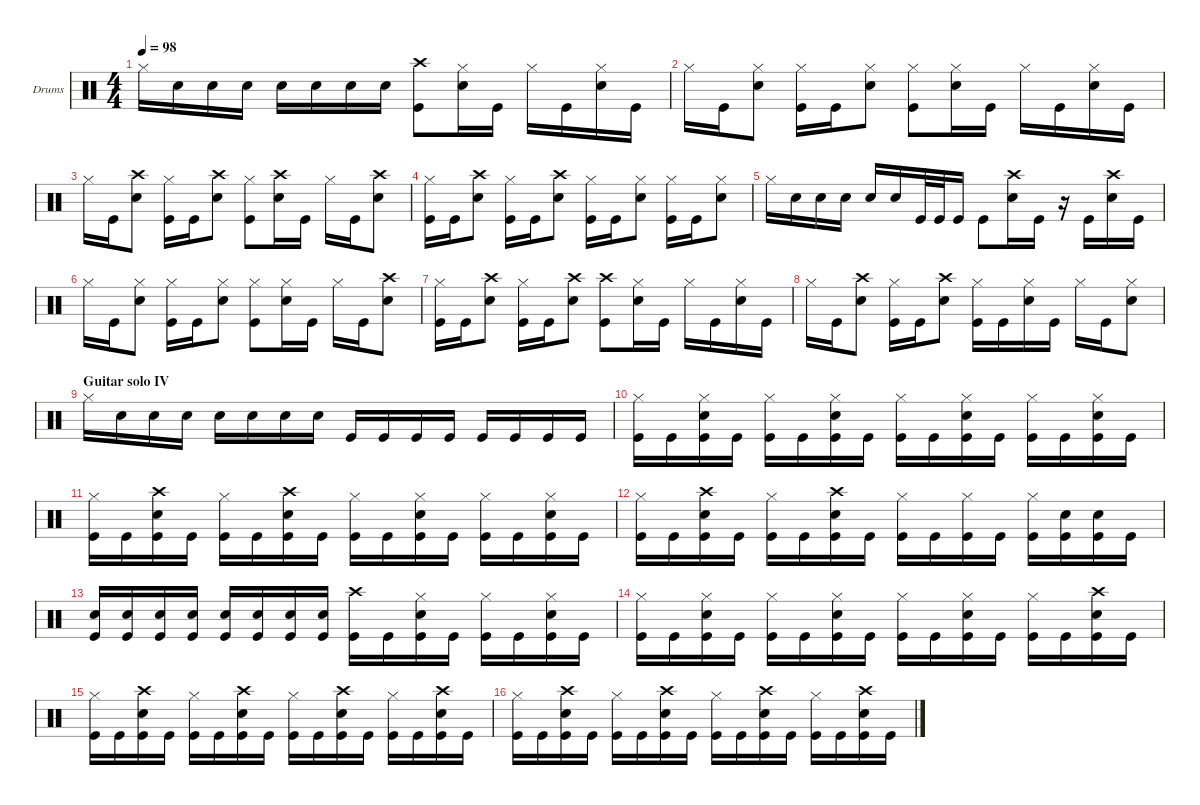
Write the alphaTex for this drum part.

\hideDynamics
\bracketExtendMode groupsimilarinstruments
\firstSystemTrackNameOrientation horizontal
\otherSystemsTrackNameOrientation horizontal
\track ("Drumkit" "Drums") {multiBarRest instrument percussion}
\staff {score}
\articulation defaults
\ts (4 4)
\tempo 98
\clef neutral
\ks c "Hi-Hat (closed)".16{dy f} "Snare (hit) 2".16 "Snare (hit) 2".16 "Snare (hit) 2".16 "Snare (hit) 2".16 "Snare (hit) 2".16 "Snare (hit) 2".16 "Snare (hit) 2".16
("Crash high (hit)" "Kick (hit)").8 ("Snare (hit) 2" "Hi-Hat (closed)").16 "Kick (hit)".16 "Hi-Hat (closed)".16 "Kick (hit)".16 ("Snare (hit) 2" "Hi-Hat (closed)").16 "Kick (hit)".16 |
"Hi-Hat (closed)".16 "Kick (hit)".16 ("Snare (hit) 2" "Hi-Hat (closed)").8 ("Kick (hit)" "Hi-Hat (closed)").16 "Kick (hit)".16 ("Snare (hit) 2" "Hi-Hat (closed)").8 ("Kick (hit)" "Hi-Hat (closed)").8 ("Snare (hit) 2" "Hi-Hat (closed)").16 "Kick (hit)".16 "Hi-Hat (closed)".16 "Kick (hit)".16 ("Snare (hit) 2" "Hi-Hat (closed)").16 "Kick (hit)".16 |
"Hi-Hat (closed)".16 "Kick (hit)".16 ("Snare (hit) 2" "Crash high (hit)").8 ("Hi-Hat (closed)" "Kick (hit)").16 "Kick (hit)".16 ("Crash high (hit)" "Snare (hit) 2").8 ("Hi-Hat (closed)" "Kick (hit)").8 ("Crash high (hit)" "Snare (hit) 2").16 "Kick (hit)".16 "Hi-Hat (closed)".16 "Kick (hit)".16 ("Snare (hit) 2" "Crash high (hit)").8 |
("Kick (hit)" "Hi-Hat (closed)").16 "Kick (hit)".16 ("Crash high (hit)" "Snare (hit) 2").8 ("Kick (hit)" "Hi-Hat (closed)").16 "Kick (hit)".16 ("Crash high (hit)" "Snare (hit) 2").8 ("Kick (hit)" "Hi-Hat (closed)").16 "Kick (hit)".16 ("Snare (hit) 2" "Hi-Hat (closed)").8 ("Kick (hit)" "Hi-Hat (closed)").16 "Kick (hit)".16 ("Snare (hit) 2" "Hi-Hat (closed)").8 |
"Hi-Hat (closed)".16 "Snare (hit) 2".16 "Snare (hit) 2".16 "Snare (hit) 2".16 "Snare (hit) 2".16 "Snare (hit) 2".16 "Kick (hit)".32 "Kick (hit)".32 "Kick (hit)".16 "Kick (hit)".8 ("Snare (hit) 2" "Crash high (hit)").16 "Kick (hit)".16 r.16 "Kick (hit)".16 ("Crash high (hit)" "Snare (hit) 2").16 "Kick (hit)".16 |
"Hi-Hat (closed)".16 "Kick (hit)".16 ("Snare (hit) 2" "Hi-Hat (closed)").8 ("Kick (hit)" "Hi-Hat (closed)").16 "Kick (hit)".16 ("Snare (hit) 2" "Hi-Hat (closed)").8 ("Kick (hit)" "Hi-Hat (closed)").8 ("Snare (hit) 2" "Hi-Hat (closed)").16 "Kick (hit)".16 "Hi-Hat (closed)".16 "Kick (hit)".16 ("Crash high (hit)" "Snare (hit) 2").8 |
("Hi-Hat (closed)" "Kick (hit)").16 "Kick (hit)".16 ("Crash high (hit)" "Snare (hit) 2").8 ("Hi-Hat (closed)" "Kick (hit)").16 "Kick (hit)".16 ("Crash high (hit)" "Snare (hit) 2").8 ("Crash high (hit)" "Kick (hit)").8 ("Snare (hit) 2" "Hi-Hat (closed)").16 "Kick (hit)".16 "Hi-Hat (closed)".16 "Kick (hit)".16 ("Snare (hit) 2" "Hi-Hat (closed)").16 "Kick (hit)".16 |
"Hi-Hat (closed)".16 "Kick (hit)".16 ("Crash high (hit)" "Snare (hit) 2").8 ("Hi-Hat (closed)" "Kick (hit)").16 "Kick (hit)".16 ("Crash high (hit)" "Snare (hit) 2").8 ("Hi-Hat (closed)" "Kick (hit)").16 "Kick (hit)".16 ("Snare (hit) 2" "Hi-Hat (closed)").16 "Kick (hit)".16 "Hi-Hat (closed)".16 "Kick (hit)".16 ("Snare (hit) 2" "Hi-Hat (closed)").8 |
\section ("" "Guitar solo IV")
"Hi-Hat (closed)".16 "Snare (hit) 2".16 "Snare (hit) 2".16 "Snare (hit) 2".16 "Snare (hit) 2".16 "Snare (hit) 2".16 "Snare (hit) 2".16 "Snare (hit) 2".16 "Kick (hit)".16 "Kick (hit)".16 "Kick (hit)".16 "Kick (hit)".16 "Kick (hit)".16 "Kick (hit)".16 "Kick (hit)".16 "Kick (hit)".16 |
("Hi-Hat (closed)" "Kick (hit)").16 "Kick (hit)".16 ("Snare (hit) 2" "Hi-Hat (closed)" "Kick (hit)").16 "Kick (hit)".16 ("Hi-Hat (closed)" "Kick (hit)").16 "Kick (hit)".16 ("Snare (hit) 2" "Hi-Hat (closed)" "Kick (hit)").16 "Kick (hit)".16 ("Hi-Hat (closed)" "Kick (hit)").16 "Kick (hit)".16 ("Snare (hit) 2" "Hi-Hat (closed)" "Kick (hit)").16 "Kick (hit)".16 ("Hi-Hat (closed)" "Kick (hit)").16 "Kick (hit)".16 ("Snare (hit) 2" "Hi-Hat (closed)" "Kick (hit)").16 "Kick (hit)".16 |
("Hi-Hat (closed)" "Kick (hit)").16 "Kick (hit)".16 ("Crash high (hit)" "Snare (hit) 2" "Kick (hit)").16 "Kick (hit)".16 ("Hi-Hat (closed)" "Kick (hit)").16 "Kick (hit)".16 ("Crash high (hit)" "Snare (hit) 2" "Kick (hit)").16 "Kick (hit)".16 ("Hi-Hat (closed)" "Kick (hit)").16 "Kick (hit)".16 ("Snare (hit) 2" "Hi-Hat (closed)" "Kick (hit)").16 "Kick (hit)".16 ("Hi-Hat (closed)" "Kick (hit)").16 "Kick (hit)".16 ("Snare (hit) 2" "Hi-Hat (closed)" "Kick (hit)").16 "Kick (hit)".16 |
("Hi-Hat (closed)" "Kick (hit)").16 "Kick (hit)".16 ("Crash high (hit)" "Snare (hit) 2" "Kick (hit)").16 "Kick (hit)".16 ("Hi-Hat (closed)" "Kick (hit)").16 "Kick (hit)".16 ("Crash high (hit)" "Snare (hit) 2" "Kick (hit)").16 "Kick (hit)".16 ("Hi-Hat (closed)" "Kick (hit)").16 "Kick (hit)".16 ("Hi-Hat (closed)" "Kick (hit)").16 "Kick (hit)".16 ("Hi-Hat (closed)" "Kick (hit)").16 ("Snare (hit) 2" "Kick (hit)").16 ("Snare (hit) 2" "Kick (hit)").16 "Kick (hit)".16 |
("Snare (hit) 2" "Kick (hit)").16 ("Snare (hit) 2" "Kick (hit)").16 ("Snare (hit) 2" "Kick (hit)").16 ("Snare (hit) 2" "Kick (hit)").16 ("Snare (hit) 2" "Kick (hit)").16 ("Snare (hit) 2" "Kick (hit)").16 ("Snare (hit) 2" "Kick (hit)").16 ("Snare (hit) 2" "Kick (hit)").16 ("Crash high (hit)" "Kick (hit)").16 "Kick (hit)".16 ("Snare (hit) 2" "Hi-Hat (closed)" "Kick (hit)").16 "Kick (hit)".16 ("Hi-Hat (closed)" "Kick (hit)").16 "Kick (hit)".16 ("Snare (hit) 2" "Hi-Hat (closed)" "Kick (hit)").16 "Kick (hit)".16 |
("Hi-Hat (closed)" "Kick (hit)").16 "Kick (hit)".16 ("Snare (hit) 2" "Hi-Hat (closed)" "Kick (hit)").16 "Kick (hit)".16 ("Hi-Hat (closed)" "Kick (hit)").16 "Kick (hit)".16 ("Snare (hit) 2" "Hi-Hat (closed)" "Kick (hit)").16 "Kick (hit)".16 ("Hi-Hat (closed)" "Kick (hit)").16 "Kick (hit)".16 ("Snare (hit) 2" "Hi-Hat (closed)" "Kick (hit)").16 "Kick (hit)".16 ("Hi-Hat (closed)" "Kick (hit)").16 "Kick (hit)".16 ("Crash high (hit)" "Snare (hit) 2" "Kick (hit)").16 "Kick (hit)".16 |
("Hi-Hat (closed)" "Kick (hit)").16 "Kick (hit)".16 ("Crash high (hit)" "Snare (hit) 2" "Kick (hit)").16 "Kick (hit)".16 ("Hi-Hat (closed)" "Kick (hit)").16 "Kick (hit)".16 ("Crash high (hit)" "Snare (hit) 2" "Kick (hit)").16 "Kick (hit)".16 ("Hi-Hat (closed)" "Kick (hit)").16 "Kick (hit)".16 ("Crash high (hit)" "Snare (hit) 2" "Kick (hit)").16 "Kick (hit)".16 ("Hi-Hat (closed)" "Kick (hit)").16 "Kick (hit)".16 ("Crash high (hit)" "Snare (hit) 2" "Kick (hit)").16 "Kick (hit)".16 |
("Hi-Hat (closed)" "Kick (hit)").16 "Kick (hit)".16 ("Crash high (hit)" "Snare (hit) 2" "Kick (hit)").16 "Kick (hit)".16 ("Hi-Hat (closed)" "Kick (hit)").16 "Kick (hit)".16 ("Crash high (hit)" "Snare (hit) 2" "Kick (hit)").16 "Kick (hit)".16 ("Hi-Hat (closed)" "Kick (hit)").16 "Kick (hit)".16 ("Crash high (hit)" "Snare (hit) 2" "Kick (hit)").16 "Kick (hit)".16 ("Hi-Hat (closed)" "Kick (hit)").16 "Kick (hit)".16 ("Crash high (hit)" "Snare (hit) 2" "Kick (hit)").16 "Kick (hit)".16
